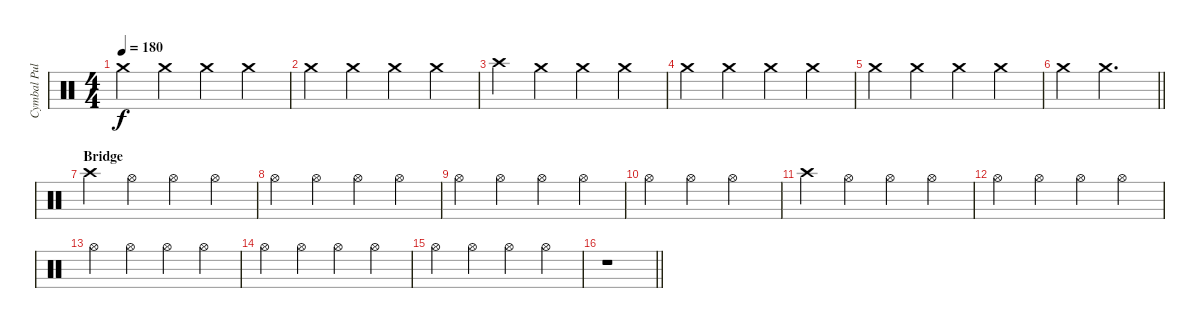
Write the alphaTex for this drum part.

\track ("Cymbal Pulse" "Cymbal Pul") {instrument percussion}
\staff {score}
\articulation defaults
\ts (4 4)
\tempo 180
\clef neutral
\ks c "Crash medium (hit)".4{dy f} "Crash medium (hit)".4 "Crash medium (hit)".4 "Crash medium (hit)".4
|
"Crash medium (hit)".4 "Crash medium (hit)".4 "Crash medium (hit)".4 "Crash medium (hit)".4 |
"Crash high (hit)".4 "Crash medium (hit)".4 "Crash medium (hit)".4 "Crash medium (hit)".4 |
"Crash medium (hit)".4 "Crash medium (hit)".4 "Crash medium (hit)".4 "Crash medium (hit)".4 |
"Crash medium (hit)".4 "Crash medium (hit)".4 "Crash medium (hit)".4 "Crash medium (hit)".4 |
\barLineRight lightlight "Crash medium (hit)".4 "Crash medium (hit)".2{d}
|
\section ("" "Bridge")
"Crash high (hit)".4 "Hi-Hat (open)".4 "Hi-Hat (open)".4 "Hi-Hat (open)".4 |
"Hi-Hat (open)".4 "Hi-Hat (open)".4 "Hi-Hat (open)".4 "Hi-Hat (open)".4 |
"Hi-Hat (open)".4 "Hi-Hat (open)".4 "Hi-Hat (open)".4 "Hi-Hat (open)".4 |
"Hi-Hat (open)".4 "Hi-Hat (open)".4 "Hi-Hat (open)".2 |
"Crash high (hit)".4 "Hi-Hat (open)".4 "Hi-Hat (open)".4 "Hi-Hat (open)".4 |
"Hi-Hat (open)".4 "Hi-Hat (open)".4 "Hi-Hat (open)".4 "Hi-Hat (open)".4 |
"Hi-Hat (open)".4 "Hi-Hat (open)".4 "Hi-Hat (open)".4 "Hi-Hat (open)".4 |
"Hi-Hat (open)".4 "Hi-Hat (open)".4 "Hi-Hat (open)".4 "Hi-Hat (open)".4 |
"Hi-Hat (open)".4 "Hi-Hat (open)".4 "Hi-Hat (open)".4 "Hi-Hat (open)".4 |
\barLineRight lightlight
r.1
